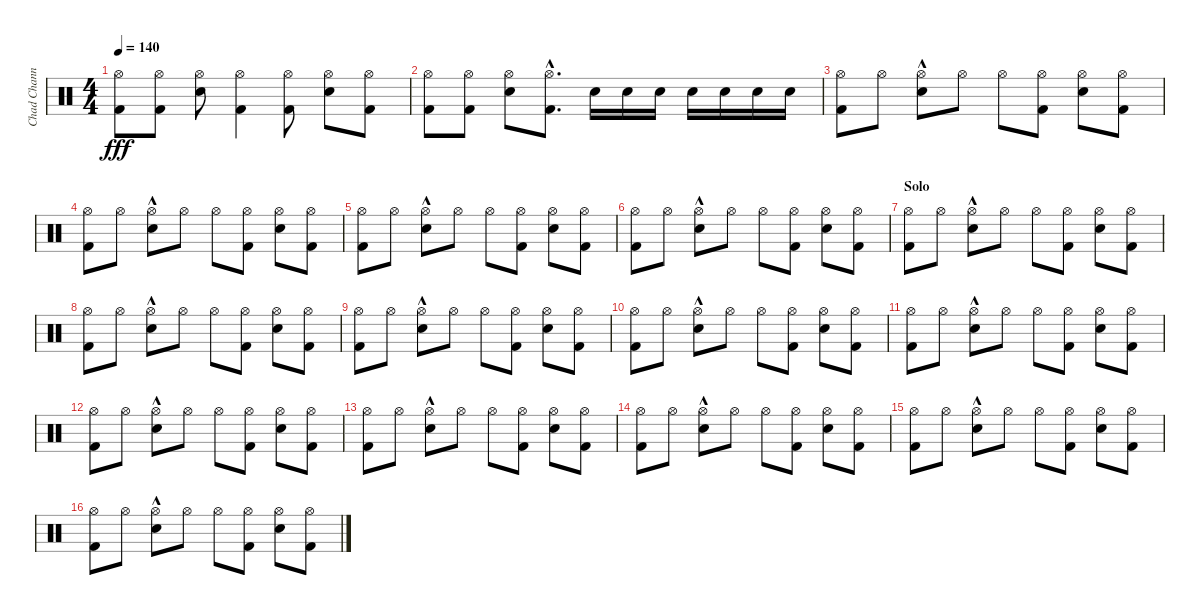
\track ("Chad Channing" "Chad Chann") {instrument percussion}
\staff {score}
\articulation defaults
\ts (4 4)
\tempo 140
\clef neutral
\ks c
("Hi-Hat (open)" "Kick (hit) 2").8{dy fff} ("Hi-Hat (open)" "Kick (hit) 2").8 ("Hi-Hat (open)" "Electric Snare (hit)").8 ("Hi-Hat (open)" "Kick (hit) 2").4 ("Hi-Hat (open)" "Kick (hit) 2").8 ("Hi-Hat (open)" "Electric Snare (hit)").8 ("Hi-Hat (open)" "Kick (hit) 2").8 |
("Hi-Hat (open)" "Kick (hit) 2").8 ("Hi-Hat (open)" "Kick (hit) 2").8 ("Hi-Hat (open)" "Electric Snare (hit)").8 ("Hi-Hat (open)" "Kick (hit) 2"{hac}).8{d} "Electric Snare (hit)".16 "Electric Snare (hit)".16 "Electric Snare (hit)".16 "Electric Snare (hit)".16 "Electric Snare (hit)".16 "Electric Snare (hit)".16 "Electric Snare (hit)".16 |
("Hi-Hat (open)" "Kick (hit) 2").8 "Hi-Hat (open)".8 ("Hi-Hat (open)" "Electric Snare (hit)"{hac}).8 "Hi-Hat (open)".8 "Hi-Hat (open)".8 ("Hi-Hat (open)" "Kick (hit) 2").8 ("Hi-Hat (open)" "Electric Snare (hit)").8 ("Hi-Hat (open)" "Kick (hit) 2").8 |
("Hi-Hat (open)" "Kick (hit) 2").8 "Hi-Hat (open)".8 ("Hi-Hat (open)" "Electric Snare (hit)"{hac}).8 "Hi-Hat (open)".8 "Hi-Hat (open)".8 ("Hi-Hat (open)" "Kick (hit) 2").8 ("Hi-Hat (open)" "Electric Snare (hit)").8 ("Hi-Hat (open)" "Kick (hit) 2").8 |
("Hi-Hat (open)" "Kick (hit) 2").8 "Hi-Hat (open)".8 ("Hi-Hat (open)" "Electric Snare (hit)"{hac}).8 "Hi-Hat (open)".8 "Hi-Hat (open)".8 ("Hi-Hat (open)" "Kick (hit) 2").8 ("Hi-Hat (open)" "Electric Snare (hit)").8 ("Hi-Hat (open)" "Kick (hit) 2").8 |
("Hi-Hat (open)" "Kick (hit) 2").8 "Hi-Hat (open)".8 ("Hi-Hat (open)" "Electric Snare (hit)"{hac}).8 "Hi-Hat (open)".8 "Hi-Hat (open)".8 ("Hi-Hat (open)" "Kick (hit) 2").8 ("Hi-Hat (open)" "Electric Snare (hit)").8 ("Hi-Hat (open)" "Kick (hit) 2").8 |
\section ("" "Solo")
("Hi-Hat (open)" "Kick (hit) 2").8 "Hi-Hat (open)".8 ("Hi-Hat (open)" "Electric Snare (hit)"{hac}).8 "Hi-Hat (open)".8 "Hi-Hat (open)".8 ("Hi-Hat (open)" "Kick (hit) 2").8 ("Hi-Hat (open)" "Electric Snare (hit)").8 ("Hi-Hat (open)" "Kick (hit) 2").8 |
("Hi-Hat (open)" "Kick (hit) 2").8 "Hi-Hat (open)".8 ("Hi-Hat (open)" "Electric Snare (hit)"{hac}).8 "Hi-Hat (open)".8 "Hi-Hat (open)".8 ("Hi-Hat (open)" "Kick (hit) 2").8 ("Hi-Hat (open)" "Electric Snare (hit)").8 ("Hi-Hat (open)" "Kick (hit) 2").8 |
("Hi-Hat (open)" "Kick (hit) 2").8 "Hi-Hat (open)".8 ("Hi-Hat (open)" "Electric Snare (hit)"{hac}).8 "Hi-Hat (open)".8 "Hi-Hat (open)".8 ("Hi-Hat (open)" "Kick (hit) 2").8 ("Hi-Hat (open)" "Electric Snare (hit)").8 ("Hi-Hat (open)" "Kick (hit) 2").8 |
("Hi-Hat (open)" "Kick (hit) 2").8 "Hi-Hat (open)".8 ("Hi-Hat (open)" "Electric Snare (hit)"{hac}).8 "Hi-Hat (open)".8 "Hi-Hat (open)".8 ("Hi-Hat (open)" "Kick (hit) 2").8 ("Hi-Hat (open)" "Electric Snare (hit)").8 ("Hi-Hat (open)" "Kick (hit) 2").8 |
("Hi-Hat (open)" "Kick (hit) 2").8 "Hi-Hat (open)".8 ("Hi-Hat (open)" "Electric Snare (hit)"{hac}).8 "Hi-Hat (open)".8 "Hi-Hat (open)".8 ("Hi-Hat (open)" "Kick (hit) 2").8 ("Hi-Hat (open)" "Electric Snare (hit)").8 ("Hi-Hat (open)" "Kick (hit) 2").8 |
("Hi-Hat (open)" "Kick (hit) 2").8 "Hi-Hat (open)".8 ("Hi-Hat (open)" "Electric Snare (hit)"{hac}).8 "Hi-Hat (open)".8 "Hi-Hat (open)".8 ("Hi-Hat (open)" "Kick (hit) 2").8 ("Hi-Hat (open)" "Electric Snare (hit)").8 ("Hi-Hat (open)" "Kick (hit) 2").8 |
("Hi-Hat (open)" "Kick (hit) 2").8 "Hi-Hat (open)".8 ("Hi-Hat (open)" "Electric Snare (hit)"{hac}).8 "Hi-Hat (open)".8 "Hi-Hat (open)".8 ("Hi-Hat (open)" "Kick (hit) 2").8 ("Hi-Hat (open)" "Electric Snare (hit)").8 ("Hi-Hat (open)" "Kick (hit) 2").8 |
("Hi-Hat (open)" "Kick (hit) 2").8 "Hi-Hat (open)".8 ("Hi-Hat (open)" "Electric Snare (hit)"{hac}).8 "Hi-Hat (open)".8 "Hi-Hat (open)".8 ("Hi-Hat (open)" "Kick (hit) 2").8 ("Hi-Hat (open)" "Electric Snare (hit)").8 ("Hi-Hat (open)" "Kick (hit) 2").8 |
("Hi-Hat (open)" "Kick (hit) 2").8 "Hi-Hat (open)".8 ("Hi-Hat (open)" "Electric Snare (hit)"{hac}).8 "Hi-Hat (open)".8 "Hi-Hat (open)".8 ("Hi-Hat (open)" "Kick (hit) 2").8 ("Hi-Hat (open)" "Electric Snare (hit)").8 ("Hi-Hat (open)" "Kick (hit) 2").8 |
("Hi-Hat (open)" "Kick (hit) 2").8 "Hi-Hat (open)".8 ("Hi-Hat (open)" "Electric Snare (hit)"{hac}).8 "Hi-Hat (open)".8 "Hi-Hat (open)".8 ("Hi-Hat (open)" "Kick (hit) 2").8 ("Hi-Hat (open)" "Electric Snare (hit)").8 ("Hi-Hat (open)" "Kick (hit) 2").8
